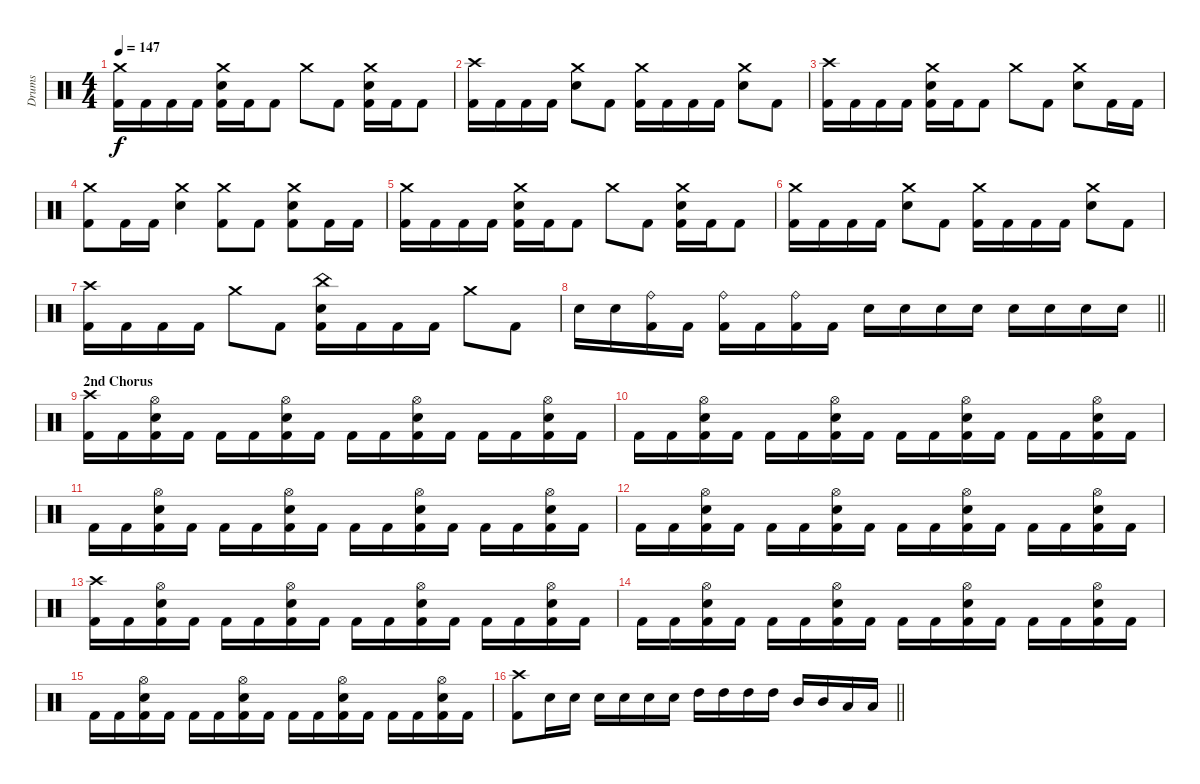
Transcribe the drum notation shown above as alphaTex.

\track ("Drums" "Drums") {instrument percussion}
\staff {score}
\articulation defaults
\ts (4 4)
\tempo 147
\clef neutral
\ks c
("Crash medium (hit)" "Kick (hit) 2").16{dy f} "Kick (hit) 2".16 "Kick (hit) 2".16 "Kick (hit) 2".16 ("Crash medium (hit)" "Snare (hit) 2" "Kick (hit) 2").16 "Kick (hit) 2".16 "Kick (hit) 2".8 "Crash medium (hit)".8 "Kick (hit) 2".8 ("Crash medium (hit)" "Snare (hit) 2" "Kick (hit) 2").16 "Kick (hit) 2".16 "Kick (hit) 2".8 |
("Crash high (hit)" "Kick (hit) 2").16 "Kick (hit) 2".16 "Kick (hit) 2".16 "Kick (hit) 2".16 ("Crash medium (hit)" "Snare (hit) 2").8 "Kick (hit) 2".8 ("Crash medium (hit)" "Kick (hit) 2").16 "Kick (hit) 2".16 "Kick (hit) 2".16 "Kick (hit) 2".16 ("Crash medium (hit)" "Snare (hit) 2").8 "Kick (hit) 2".8 |
("Crash high (hit)" "Kick (hit) 2").16 "Kick (hit) 2".16 "Kick (hit) 2".16 "Kick (hit) 2".16 ("Crash medium (hit)" "Snare (hit) 2" "Kick (hit) 2").16 "Kick (hit) 2".16 "Kick (hit) 2".8 "Crash medium (hit)".8 "Kick (hit) 2".8 ("Crash medium (hit)" "Snare (hit) 2").8 "Kick (hit) 2".16 "Kick (hit) 2".16 |
("Crash medium (hit)" "Kick (hit) 2").8 "Kick (hit) 2".16 "Kick (hit) 2".16 ("Crash medium (hit)" "Snare (hit) 2").4 ("Crash medium (hit)" "Kick (hit) 2").8 "Kick (hit) 2".8 ("Crash medium (hit)" "Snare (hit) 2" "Kick (hit) 2").8 "Kick (hit) 2".16 "Kick (hit) 2".16 |
("Crash medium (hit)" "Kick (hit) 2").16 "Kick (hit) 2".16 "Kick (hit) 2".16 "Kick (hit) 2".16 ("Crash medium (hit)" "Snare (hit) 2" "Kick (hit) 2").16 "Kick (hit) 2".16 "Kick (hit) 2".8 "Crash medium (hit)".8 "Kick (hit) 2".8 ("Crash medium (hit)" "Snare (hit) 2" "Kick (hit) 2").16 "Kick (hit) 2".16 "Kick (hit) 2".8 |
("Crash medium (hit)" "Kick (hit) 2").16 "Kick (hit) 2".16 "Kick (hit) 2".16 "Kick (hit) 2".16 ("Crash medium (hit)" "Snare (hit) 2").8 "Kick (hit) 2".8 ("Crash medium (hit)" "Kick (hit) 2").16 "Kick (hit) 2".16 "Kick (hit) 2".16 "Kick (hit) 2".16 ("Crash medium (hit)" "Snare (hit) 2").8 "Kick (hit) 2".8 |
("Crash high (hit)" "Kick (hit) 2").16 "Kick (hit) 2".16 "Kick (hit) 2".16 "Kick (hit) 2".16 "Crash medium (hit)".8 "Kick (hit) 2".8 ("China (hit)" "Snare (hit) 2" "Kick (hit) 2").16 "Kick (hit) 2".16 "Kick (hit) 2".16 "Kick (hit) 2".16 "Crash medium (hit)".8 "Kick (hit) 2".8 |
\barLineRight lightlight "Snare (hit) 2".16 "Snare (hit) 2".16
("Ride (bell)" "Kick (hit) 2").16 "Kick (hit) 2".16 ("Ride (bell)" "Kick (hit) 2").16 "Kick (hit) 2".16 ("Ride (bell)" "Kick (hit) 2").16 "Kick (hit) 2".16 "Snare (hit) 2".16 "Snare (hit) 2".16 "Snare (hit) 2".16 "Snare (hit) 2".16 "Snare (hit) 2".16 "Snare (hit) 2".16 "Snare (hit) 2".16 "Snare (hit) 2".16 |
\section ("" "2nd Chorus")
("Crash high (hit)" "Kick (hit) 2").16 "Kick (hit) 2".16 ("Hi-Hat (open)" "Snare (hit) 2" "Kick (hit) 2").16 "Kick (hit) 2".16 "Kick (hit) 2".16 "Kick (hit) 2".16 ("Hi-Hat (open)" "Snare (hit) 2" "Kick (hit) 2").16 "Kick (hit) 2".16 "Kick (hit) 2".16 "Kick (hit) 2".16 ("Hi-Hat (open)" "Snare (hit) 2" "Kick (hit) 2").16 "Kick (hit) 2".16 "Kick (hit) 2".16 "Kick (hit) 2".16 ("Hi-Hat (open)" "Snare (hit) 2" "Kick (hit) 2").16 "Kick (hit) 2".16 |
"Kick (hit) 2".16 "Kick (hit) 2".16 ("Hi-Hat (open)" "Snare (hit) 2" "Kick (hit) 2").16 "Kick (hit) 2".16 "Kick (hit) 2".16 "Kick (hit) 2".16 ("Hi-Hat (open)" "Snare (hit) 2" "Kick (hit) 2").16 "Kick (hit) 2".16 "Kick (hit) 2".16 "Kick (hit) 2".16 ("Hi-Hat (open)" "Snare (hit) 2" "Kick (hit) 2").16 "Kick (hit) 2".16 "Kick (hit) 2".16 "Kick (hit) 2".16 ("Hi-Hat (open)" "Snare (hit) 2" "Kick (hit) 2").16 "Kick (hit) 2".16 |
"Kick (hit) 2".16 "Kick (hit) 2".16 ("Hi-Hat (open)" "Snare (hit) 2" "Kick (hit) 2").16 "Kick (hit) 2".16 "Kick (hit) 2".16 "Kick (hit) 2".16 ("Hi-Hat (open)" "Snare (hit) 2" "Kick (hit) 2").16 "Kick (hit) 2".16 "Kick (hit) 2".16 "Kick (hit) 2".16 ("Hi-Hat (open)" "Snare (hit) 2" "Kick (hit) 2").16 "Kick (hit) 2".16 "Kick (hit) 2".16 "Kick (hit) 2".16 ("Hi-Hat (open)" "Snare (hit) 2" "Kick (hit) 2").16 "Kick (hit) 2".16 |
"Kick (hit) 2".16 "Kick (hit) 2".16 ("Hi-Hat (open)" "Snare (hit) 2" "Kick (hit) 2").16 "Kick (hit) 2".16 "Kick (hit) 2".16 "Kick (hit) 2".16 ("Hi-Hat (open)" "Snare (hit) 2" "Kick (hit) 2").16 "Kick (hit) 2".16 "Kick (hit) 2".16 "Kick (hit) 2".16 ("Hi-Hat (open)" "Snare (hit) 2" "Kick (hit) 2").16 "Kick (hit) 2".16 "Kick (hit) 2".16 "Kick (hit) 2".16 ("Hi-Hat (open)" "Snare (hit) 2" "Kick (hit) 2").16 "Kick (hit) 2".16 |
("Crash high (hit)" "Kick (hit) 2").16 "Kick (hit) 2".16 ("Hi-Hat (open)" "Snare (hit) 2" "Kick (hit) 2").16 "Kick (hit) 2".16 "Kick (hit) 2".16 "Kick (hit) 2".16 ("Hi-Hat (open)" "Snare (hit) 2" "Kick (hit) 2").16 "Kick (hit) 2".16 "Kick (hit) 2".16 "Kick (hit) 2".16 ("Hi-Hat (open)" "Snare (hit) 2" "Kick (hit) 2").16 "Kick (hit) 2".16 "Kick (hit) 2".16 "Kick (hit) 2".16 ("Hi-Hat (open)" "Snare (hit) 2" "Kick (hit) 2").16 "Kick (hit) 2".16 |
"Kick (hit) 2".16 "Kick (hit) 2".16 ("Hi-Hat (open)" "Snare (hit) 2" "Kick (hit) 2").16 "Kick (hit) 2".16 "Kick (hit) 2".16 "Kick (hit) 2".16 ("Hi-Hat (open)" "Snare (hit) 2" "Kick (hit) 2").16 "Kick (hit) 2".16 "Kick (hit) 2".16 "Kick (hit) 2".16 ("Hi-Hat (open)" "Snare (hit) 2" "Kick (hit) 2").16 "Kick (hit) 2".16 "Kick (hit) 2".16 "Kick (hit) 2".16 ("Hi-Hat (open)" "Snare (hit) 2" "Kick (hit) 2").16 "Kick (hit) 2".16 |
"Kick (hit) 2".16 "Kick (hit) 2".16 ("Hi-Hat (open)" "Snare (hit) 2" "Kick (hit) 2").16 "Kick (hit) 2".16 "Kick (hit) 2".16 "Kick (hit) 2".16 ("Hi-Hat (open)" "Snare (hit) 2" "Kick (hit) 2").16 "Kick (hit) 2".16 "Kick (hit) 2".16 "Kick (hit) 2".16 ("Hi-Hat (open)" "Snare (hit) 2" "Kick (hit) 2").16 "Kick (hit) 2".16 "Kick (hit) 2".16 "Kick (hit) 2".16 ("Hi-Hat (open)" "Snare (hit) 2" "Kick (hit) 2").16 "Kick (hit) 2".16 |
\barLineRight lightlight
("Crash high (hit)" "Kick (hit) 2").8 "Snare (hit) 2".16 "Snare (hit) 2".16 "Snare (hit) 2".16 "Snare (hit) 2".16 "Snare (hit) 2".16 "Snare (hit) 2".16 "High Tom (hit)".16 "High Tom (hit)".16 "High Tom (hit)".16 "High Tom (hit)".16 "Mid Tom (hit)".16 "Mid Tom (hit)".16 "Low Floor Tom (hit)".16 "Low Floor Tom (hit)".16
